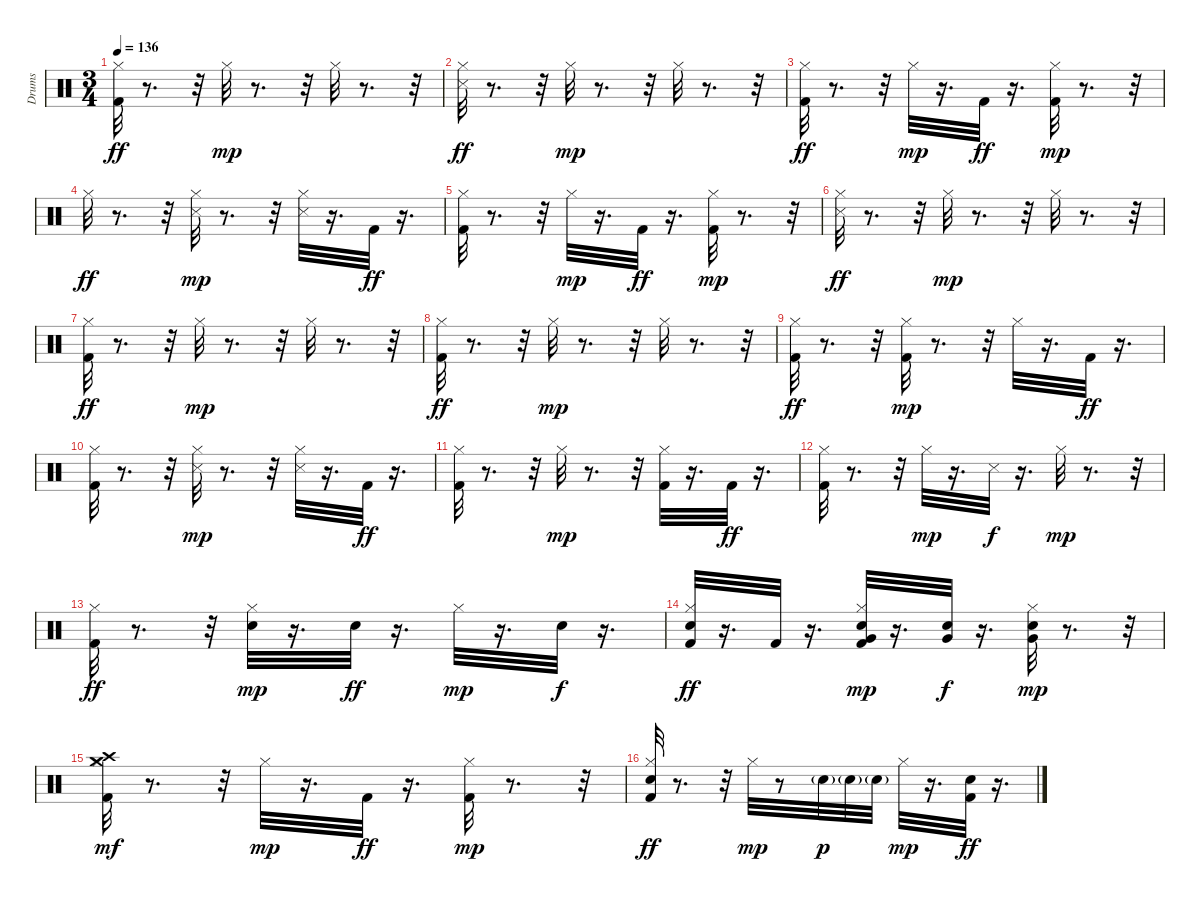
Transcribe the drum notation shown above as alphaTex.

\track ("Drums  " "Drums  ") {instrument percussion}
\staff {score}
\articulation defaults
\ts (3 4)
\tempo 136
\clef neutral
\ks c
("Kick (hit) 2" "Hi-Hat (closed)").32{dy ff} r.8{d} r.32 "Hi-Hat (closed)".32{dy mp} r.8{d} r.32 "Hi-Hat (closed)".32 r.8{d} r.32 |
("Hi-Hat (closed)" "Snare (side stick) 3").32{dy ff} r.8{d} r.32 "Hi-Hat (closed)".32{dy mp} r.8{d} r.32 "Hi-Hat (closed)".32 r.8{d} r.32 |
("Kick (hit) 2" "Hi-Hat (closed)").32{dy ff} r.8{d} r.32 "Hi-Hat (closed)".32{dy mp} r.16{d} "Kick (hit) 2".32{dy ff} r.16{d} ("Kick (hit) 2" "Hi-Hat (closed)").32{dy mp} r.8{d} r.32 |
"Hi-Hat (closed)".32{dy ff} r.8{d} r.32 ("Hi-Hat (closed)" "Snare (side stick) 3").32{dy mp} r.8{d} r.32 ("Hi-Hat (closed)" "Snare (side stick) 3").32 r.16{d} "Kick (hit) 2".32{dy ff} r.16{d} |
("Kick (hit) 2" "Hi-Hat (closed)").32 r.8{d} r.32 "Hi-Hat (closed)".32{dy mp} r.16{d} "Kick (hit) 2".32{dy ff} r.16{d} ("Kick (hit) 2" "Hi-Hat (closed)").32{dy mp} r.8{d} r.32 |
("Hi-Hat (closed)" "Snare (side stick) 3").32{dy ff} r.8{d} r.32 "Hi-Hat (closed)".32{dy mp} r.8{d} r.32 "Hi-Hat (closed)".32 r.8{d} r.32 |
("Kick (hit) 2" "Hi-Hat (closed)").32{dy ff} r.8{d} r.32 "Hi-Hat (closed)".32{dy mp} r.8{d} r.32 "Hi-Hat (closed)".32 r.8{d} r.32 |
("Kick (hit) 2" "Hi-Hat (closed)").32{dy ff} r.8{d} r.32 "Hi-Hat (closed)".32{dy mp} r.8{d} r.32 "Hi-Hat (closed)".32 r.8{d} r.32 |
("Kick (hit) 2" "Hi-Hat (closed)").32{dy ff} r.8{d} r.32 ("Kick (hit) 2" "Hi-Hat (closed)").32{dy mp} r.8{d} r.32 "Hi-Hat (closed)".32 r.16{d} "Kick (hit) 2".32{dy ff} r.16{d} |
("Kick (hit) 2" "Hi-Hat (closed)").32 r.8{d} r.32 ("Hi-Hat (closed)" "Snare (side stick) 3").32{dy mp} r.8{d} r.32 ("Hi-Hat (closed)" "Snare (side stick) 3").32 r.16{d} "Kick (hit) 2".32{dy ff} r.16{d} |
("Kick (hit) 2" "Hi-Hat (closed)").32 r.8{d} r.32 "Hi-Hat (closed)".32{dy mp} r.8{d} r.32 ("Kick (hit) 2" "Hi-Hat (closed)").32 r.16{d} "Kick (hit) 2".32{dy ff} r.16{d} |
("Kick (hit) 2" "Hi-Hat (closed)").32 r.8{d} r.32 "Hi-Hat (closed)".32{dy mp} r.16{d} "Snare (side stick) 3".32{dy f} r.16{d} "Hi-Hat (closed)".32{dy mp} r.8{d} r.32 |
("Kick (hit) 2" "Hi-Hat (closed)").32{dy ff} r.8{d} r.32 ("Snare (hit) 2" "Hi-Hat (closed)").32{dy mp} r.16{d} "Snare (hit) 2".32{dy ff} r.16{d} "Hi-Hat (closed)".32{dy mp} r.16{d} "Snare (hit) 2".32{dy f} r.16{d} |
("Snare (hit) 2" "Kick (hit) 2" "Hi-Hat (closed)").32{dy ff} r.16{d} "Kick (hit) 2".32 r.16{d} ("Kick (hit) 2" "Snare (hit) 2" "Very Low Tom (hit)" "Hi-Hat (closed)").32{dy mp} r.16{d} ("Snare (hit) 2" "Very Low Tom (hit)").32{dy f} r.16{d} ("Snare (hit) 2" "Very Low Tom (hit)" "Hi-Hat (closed)").32{dy mp} r.8{d} r.32 |
("Kick (hit) 2" "Hi-Hat (closed)" "Crash medium (hit)" "Crash high (hit)").32{dy mf} r.8{d} r.32 "Hi-Hat (closed)".32{dy mp} r.16{d} "Kick (hit) 2".32{dy ff} r.16{d} ("Kick (hit) 2" "Hi-Hat (closed)").32{dy mp} r.8{d} r.32 |
("Snare (hit) 2" "Kick (hit) 2" "Hi-Hat (closed)").32{dy ff} r.8{d} r.32 "Hi-Hat (closed)".32{dy mp} r.8 "Snare (hit) 2"{g}.32{dy p} "Snare (hit) 2"{g}.32 "Snare (hit) 2"{g}.32 "Hi-Hat (closed)".32{dy mp} r.16{d} ("Kick (hit) 2" "Snare (hit) 2").32{dy ff} r.16{d}
